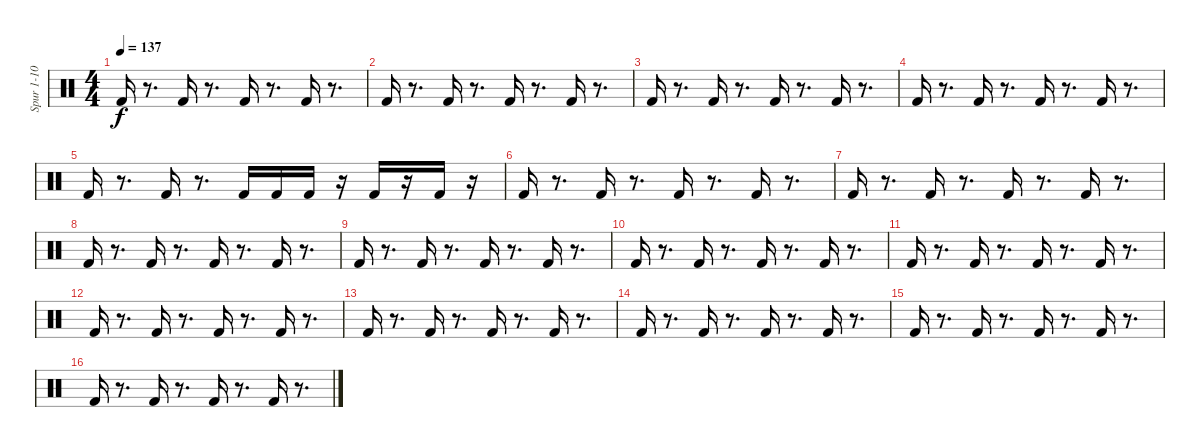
\track ("Spur 1-10" "Spur 1-10") {instrument percussion}
\staff {score}
\articulation defaults
\ts (4 4)
\tempo 137
\clef neutral
\ks c "Kick (hit) 2".16{dy f}
r.8{d} "Kick (hit) 2".16 r.8{d} "Kick (hit) 2".16 r.8{d} "Kick (hit) 2".16 r.8{d} |
"Kick (hit) 2".16 r.8{d} "Kick (hit) 2".16 r.8{d} "Kick (hit) 2".16 r.8{d} "Kick (hit) 2".16 r.8{d} |
"Kick (hit) 2".16 r.8{d} "Kick (hit) 2".16 r.8{d} "Kick (hit) 2".16 r.8{d} "Kick (hit) 2".16 r.8{d} |
"Kick (hit) 2".16 r.8{d} "Kick (hit) 2".16 r.8{d} "Kick (hit) 2".16 r.8{d} "Kick (hit) 2".16 r.8{d} |
"Kick (hit) 2".16 r.8{d} "Kick (hit) 2".16 r.8{d} "Kick (hit) 2".16 "Kick (hit) 2".16 "Kick (hit) 2".16 r.16 "Kick (hit) 2".16 r.16 "Kick (hit) 2".16 r.16 |
"Kick (hit) 2".16 r.8{d} "Kick (hit) 2".16 r.8{d} "Kick (hit) 2".16 r.8{d} "Kick (hit) 2".16 r.8{d} |
"Kick (hit) 2".16 r.8{d} "Kick (hit) 2".16 r.8{d} "Kick (hit) 2".16 r.8{d} "Kick (hit) 2".16 r.8{d} |
"Kick (hit) 2".16 r.8{d} "Kick (hit) 2".16 r.8{d} "Kick (hit) 2".16 r.8{d} "Kick (hit) 2".16 r.8{d} |
"Kick (hit) 2".16 r.8{d} "Kick (hit) 2".16 r.8{d} "Kick (hit) 2".16 r.8{d} "Kick (hit) 2".16 r.8{d} |
"Kick (hit) 2".16 r.8{d} "Kick (hit) 2".16 r.8{d} "Kick (hit) 2".16 r.8{d} "Kick (hit) 2".16 r.8{d} |
"Kick (hit) 2".16 r.8{d} "Kick (hit) 2".16 r.8{d} "Kick (hit) 2".16 r.8{d} "Kick (hit) 2".16 r.8{d} |
"Kick (hit) 2".16 r.8{d} "Kick (hit) 2".16 r.8{d} "Kick (hit) 2".16 r.8{d} "Kick (hit) 2".16 r.8{d} |
"Kick (hit) 2".16 r.8{d} "Kick (hit) 2".16 r.8{d} "Kick (hit) 2".16 r.8{d} "Kick (hit) 2".16 r.8{d} |
"Kick (hit) 2".16 r.8{d} "Kick (hit) 2".16 r.8{d} "Kick (hit) 2".16 r.8{d} "Kick (hit) 2".16 r.8{d} |
"Kick (hit) 2".16 r.8{d} "Kick (hit) 2".16 r.8{d} "Kick (hit) 2".16 r.8{d} "Kick (hit) 2".16 r.8{d} |
"Kick (hit) 2".16 r.8{d} "Kick (hit) 2".16 r.8{d} "Kick (hit) 2".16 r.8{d} "Kick (hit) 2".16 r.8{d}
